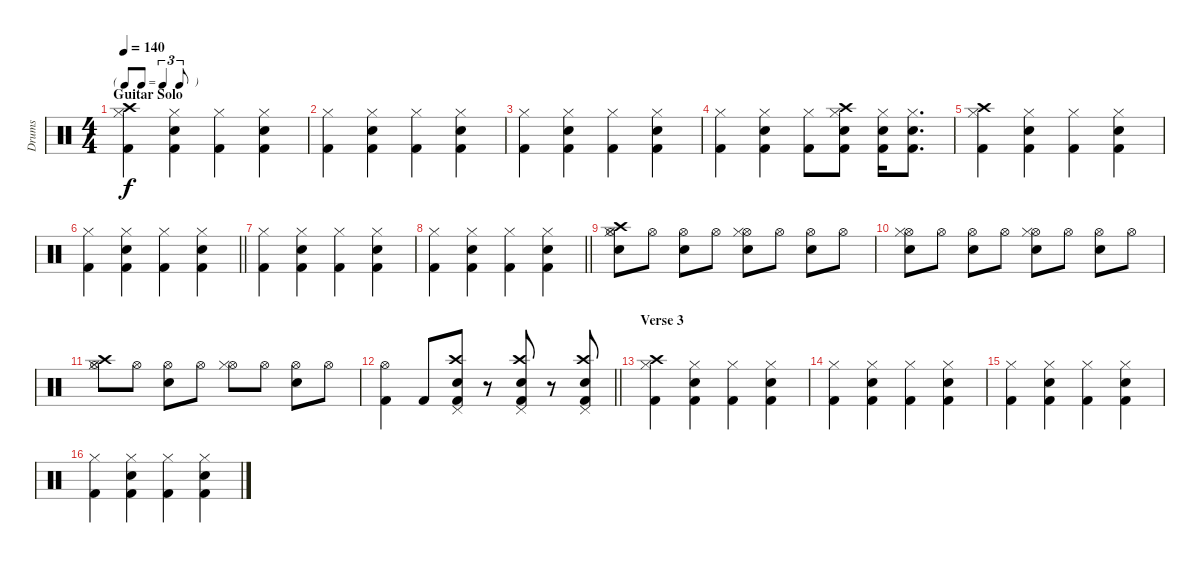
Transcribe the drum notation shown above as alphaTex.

\track ("Drums" "Drums") {instrument percussion}
\staff {score}
\articulation defaults
\ts (4 4)
\tf triplet8th
\section ("" "Guitar Solo")
\tempo 140
\clef neutral
\ks c
("Hi-Hat (closed)" "Kick (hit) 2" "Crash high (hit)").4{dy f} ("Hi-Hat (closed)" "Kick (hit) 2" "Snare (hit) 2").4 ("Hi-Hat (closed)" "Kick (hit) 2").4 ("Hi-Hat (closed)" "Kick (hit) 2" "Snare (hit) 2").4 |
("Hi-Hat (closed)" "Kick (hit) 2").4 ("Hi-Hat (closed)" "Kick (hit) 2" "Snare (hit) 2").4 ("Hi-Hat (closed)" "Kick (hit) 2").4 ("Hi-Hat (closed)" "Kick (hit) 2" "Snare (hit) 2").4 |
("Hi-Hat (closed)" "Kick (hit) 2").4 ("Hi-Hat (closed)" "Kick (hit) 2" "Snare (hit) 2").4 ("Hi-Hat (closed)" "Kick (hit) 2").4 ("Hi-Hat (closed)" "Kick (hit) 2" "Snare (hit) 2").4 |
("Hi-Hat (closed)" "Kick (hit) 2").4 ("Hi-Hat (closed)" "Kick (hit) 2" "Snare (hit) 2").4 ("Hi-Hat (closed)" "Kick (hit) 2").8 ("Hi-Hat (closed)" "Kick (hit) 2" "Snare (hit) 2" "Crash high (hit)").8 ("Hi-Hat (closed)" "Kick (hit) 2" "Snare (hit) 2").16 ("Hi-Hat (closed)" "Kick (hit) 2" "Snare (hit) 2").8{d} |
("Hi-Hat (closed)" "Kick (hit) 2" "Crash high (hit)").4 ("Hi-Hat (closed)" "Kick (hit) 2" "Snare (hit) 2").4 ("Hi-Hat (closed)" "Kick (hit) 2").4 ("Hi-Hat (closed)" "Kick (hit) 2" "Snare (hit) 2").4 |
\barLineRight lightlight
("Hi-Hat (closed)" "Kick (hit) 2").4 ("Hi-Hat (closed)" "Kick (hit) 2" "Snare (hit) 2").4 ("Hi-Hat (closed)" "Kick (hit) 2").4 ("Hi-Hat (closed)" "Kick (hit) 2" "Snare (hit) 2").4 |
("Hi-Hat (closed)" "Kick (hit) 2").4 ("Hi-Hat (closed)" "Kick (hit) 2" "Snare (hit) 2").4 ("Hi-Hat (closed)" "Kick (hit) 2").4 ("Hi-Hat (closed)" "Kick (hit) 2" "Snare (hit) 2").4 |
\barLineRight lightlight
("Hi-Hat (closed)" "Kick (hit) 2").4 ("Hi-Hat (closed)" "Kick (hit) 2" "Snare (hit) 2").4 ("Hi-Hat (closed)" "Kick (hit) 2").4 ("Hi-Hat (closed)" "Kick (hit) 2" "Snare (hit) 2").4 |
("Hi-Hat (open)" "Snare (hit) 2" "Hi-Hat (closed)" "Crash high (hit)").8 "Hi-Hat (open)".8 ("Hi-Hat (open)" "Snare (hit) 2").8 "Hi-Hat (open)".8 ("Hi-Hat (open)" "Snare (hit) 2" "Hi-Hat (closed)").8 "Hi-Hat (open)".8 ("Hi-Hat (open)" "Snare (hit) 2").8 "Hi-Hat (open)".8 |
("Hi-Hat (open)" "Snare (hit) 2" "Hi-Hat (closed)").8 "Hi-Hat (open)".8 ("Hi-Hat (open)" "Snare (hit) 2").8 "Hi-Hat (open)".8 ("Hi-Hat (open)" "Snare (hit) 2" "Hi-Hat (closed)").8 "Hi-Hat (open)".8 ("Hi-Hat (open)" "Snare (hit) 2").8 "Hi-Hat (open)".8 |
("Hi-Hat (open)" "Hi-Hat (closed)" "Crash high (hit)").8 "Hi-Hat (open)".8 ("Hi-Hat (open)" "Snare (hit) 2").8 "Hi-Hat (open)".8 ("Hi-Hat (open)" "Hi-Hat (closed)").8 "Hi-Hat (open)".8 ("Hi-Hat (open)" "Snare (hit) 2").8 "Hi-Hat (open)".8 |
\barLineRight lightlight
("Hi-Hat (open)" "Kick (hit) 2").4 "Kick (hit) 2".8 ("Pedal Hi-Hat (hit)" "Kick (hit) 2" "Snare (hit) 2" "Crash high (hit)").8 r.8 ("Pedal Hi-Hat (hit)" "Kick (hit) 2" "Snare (hit) 2" "Crash high (hit)").8 r.8 ("Pedal Hi-Hat (hit)" "Kick (hit) 2" "Snare (hit) 2" "Crash high (hit)").8 |
\section ("" "Verse 3")
("Hi-Hat (closed)" "Kick (hit) 2" "Crash high (hit)").4 ("Hi-Hat (closed)" "Kick (hit) 2" "Snare (hit) 2").4 ("Hi-Hat (closed)" "Kick (hit) 2").4 ("Hi-Hat (closed)" "Kick (hit) 2" "Snare (hit) 2").4 |
("Hi-Hat (closed)" "Kick (hit) 2").4 ("Hi-Hat (closed)" "Kick (hit) 2" "Snare (hit) 2").4 ("Hi-Hat (closed)" "Kick (hit) 2").4 ("Hi-Hat (closed)" "Kick (hit) 2" "Snare (hit) 2").4 |
("Hi-Hat (closed)" "Kick (hit) 2").4 ("Hi-Hat (closed)" "Kick (hit) 2" "Snare (hit) 2").4 ("Hi-Hat (closed)" "Kick (hit) 2").4 ("Hi-Hat (closed)" "Kick (hit) 2" "Snare (hit) 2").4 |
("Hi-Hat (closed)" "Kick (hit) 2").4 ("Hi-Hat (closed)" "Kick (hit) 2" "Snare (hit) 2").4 ("Hi-Hat (closed)" "Kick (hit) 2").4 ("Hi-Hat (closed)" "Kick (hit) 2" "Snare (hit) 2").4
